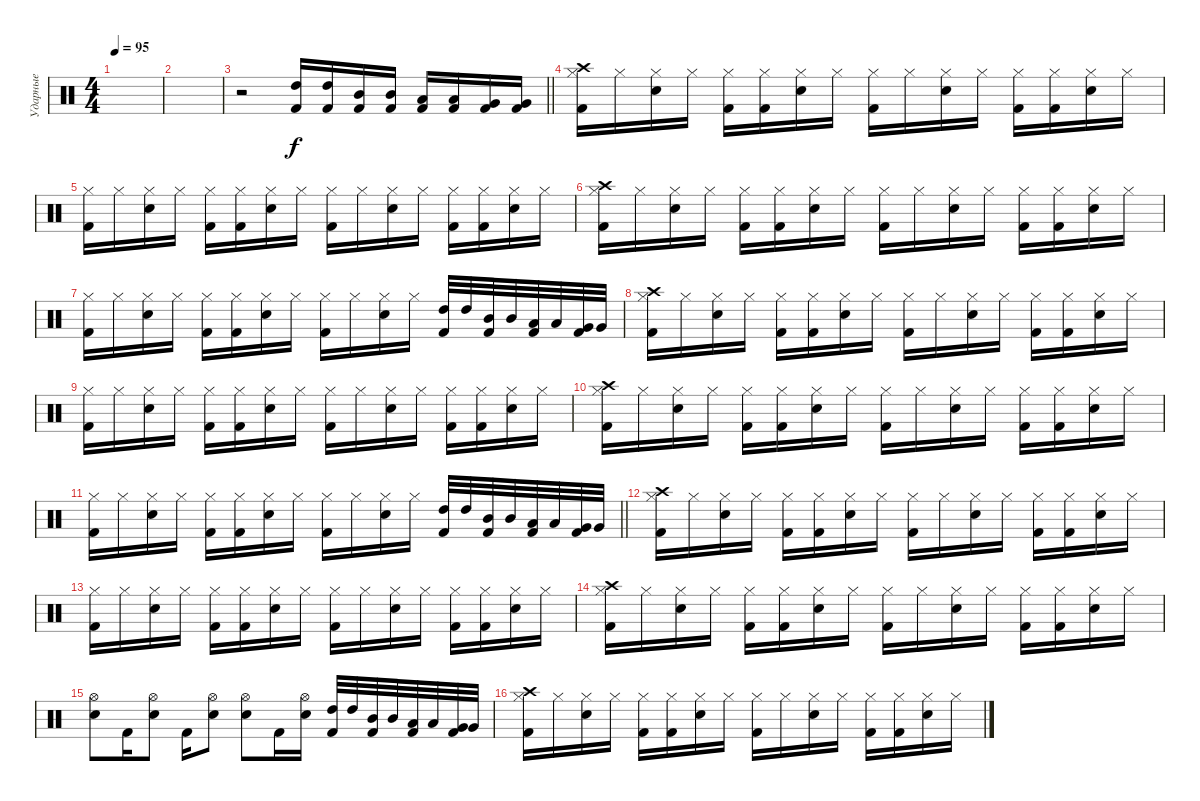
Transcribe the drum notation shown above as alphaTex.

\track ("Ударные" "Ударные") {instrument percussion}
\staff {score}
\articulation defaults
\ts (4 4)
\tempo 95
\clef neutral
\ks c
|
|
\barLineRight lightlight
r.2 ("Kick (hit) 2" "High Tom (hit)").16 ("Kick (hit) 2" "High Tom (hit)").16 ("Kick (hit) 2" "Mid Tom (hit)").16 ("Kick (hit) 2" "Mid Tom (hit)").16 ("Kick (hit) 2" "Low Tom (hit)").16 ("Kick (hit) 2" "Low Tom (hit)").16 ("Kick (hit) 2" "Very Low Tom (hit)").16 ("Kick (hit) 2" "Very Low Tom (hit)").16 |
("Crash high (hit)" "Kick (hit) 2" "Hi-Hat (closed)").16 "Hi-Hat (closed)".16 ("Snare (hit) 2" "Hi-Hat (closed)").16 "Hi-Hat (closed)".16 ("Kick (hit) 2" "Hi-Hat (closed)").16 ("Kick (hit) 2" "Hi-Hat (closed)").16 ("Snare (hit) 2" "Hi-Hat (closed)").16 "Hi-Hat (closed)".16 ("Kick (hit) 2" "Hi-Hat (closed)").16 "Hi-Hat (closed)".16 ("Snare (hit) 2" "Hi-Hat (closed)").16 "Hi-Hat (closed)".16 ("Kick (hit) 2" "Hi-Hat (closed)").16 ("Kick (hit) 2" "Hi-Hat (closed)").16 ("Snare (hit) 2" "Hi-Hat (closed)").16 "Hi-Hat (closed)".16 |
("Kick (hit) 2" "Hi-Hat (closed)").16 "Hi-Hat (closed)".16 ("Snare (hit) 2" "Hi-Hat (closed)").16 "Hi-Hat (closed)".16 ("Kick (hit) 2" "Hi-Hat (closed)").16 ("Kick (hit) 2" "Hi-Hat (closed)").16 ("Snare (hit) 2" "Hi-Hat (closed)").16 "Hi-Hat (closed)".16 ("Kick (hit) 2" "Hi-Hat (closed)").16 "Hi-Hat (closed)".16 ("Snare (hit) 2" "Hi-Hat (closed)").16 "Hi-Hat (closed)".16 ("Kick (hit) 2" "Hi-Hat (closed)").16 ("Kick (hit) 2" "Hi-Hat (closed)").16 ("Snare (hit) 2" "Hi-Hat (closed)").16 "Hi-Hat (closed)".16 |
("Crash high (hit)" "Kick (hit) 2" "Hi-Hat (closed)").16 "Hi-Hat (closed)".16 ("Snare (hit) 2" "Hi-Hat (closed)").16 "Hi-Hat (closed)".16 ("Kick (hit) 2" "Hi-Hat (closed)").16 ("Kick (hit) 2" "Hi-Hat (closed)").16 ("Snare (hit) 2" "Hi-Hat (closed)").16 "Hi-Hat (closed)".16 ("Kick (hit) 2" "Hi-Hat (closed)").16 "Hi-Hat (closed)".16 ("Snare (hit) 2" "Hi-Hat (closed)").16 "Hi-Hat (closed)".16 ("Kick (hit) 2" "Hi-Hat (closed)").16 ("Kick (hit) 2" "Hi-Hat (closed)").16 ("Snare (hit) 2" "Hi-Hat (closed)").16 "Hi-Hat (closed)".16 |
("Kick (hit) 2" "Hi-Hat (closed)").16 "Hi-Hat (closed)".16 ("Snare (hit) 2" "Hi-Hat (closed)").16 "Hi-Hat (closed)".16 ("Kick (hit) 2" "Hi-Hat (closed)").16 ("Kick (hit) 2" "Hi-Hat (closed)").16 ("Snare (hit) 2" "Hi-Hat (closed)").16 "Hi-Hat (closed)".16 ("Kick (hit) 2" "Hi-Hat (closed)").16 "Hi-Hat (closed)".16 ("Snare (hit) 2" "Hi-Hat (closed)").16 "Hi-Hat (closed)".16 ("Kick (hit) 2" "High Tom (hit)").32 "High Tom (hit)".32 ("Kick (hit) 2" "Mid Tom (hit)").32 "Mid Tom (hit)".32 ("Kick (hit) 2" "Low Tom (hit)").32 "Low Tom (hit)".32 ("Kick (hit) 2" "Very Low Tom (hit)").32 "Very Low Tom (hit)".32 |
("Crash high (hit)" "Kick (hit) 2" "Hi-Hat (closed)").16 "Hi-Hat (closed)".16 ("Snare (hit) 2" "Hi-Hat (closed)").16 "Hi-Hat (closed)".16 ("Kick (hit) 2" "Hi-Hat (closed)").16 ("Kick (hit) 2" "Hi-Hat (closed)").16 ("Snare (hit) 2" "Hi-Hat (closed)").16 "Hi-Hat (closed)".16 ("Kick (hit) 2" "Hi-Hat (closed)").16 "Hi-Hat (closed)".16 ("Snare (hit) 2" "Hi-Hat (closed)").16 "Hi-Hat (closed)".16 ("Kick (hit) 2" "Hi-Hat (closed)").16 ("Kick (hit) 2" "Hi-Hat (closed)").16 ("Snare (hit) 2" "Hi-Hat (closed)").16 "Hi-Hat (closed)".16 |
("Kick (hit) 2" "Hi-Hat (closed)").16 "Hi-Hat (closed)".16 ("Snare (hit) 2" "Hi-Hat (closed)").16 "Hi-Hat (closed)".16 ("Kick (hit) 2" "Hi-Hat (closed)").16 ("Kick (hit) 2" "Hi-Hat (closed)").16 ("Snare (hit) 2" "Hi-Hat (closed)").16 "Hi-Hat (closed)".16 ("Kick (hit) 2" "Hi-Hat (closed)").16 "Hi-Hat (closed)".16 ("Snare (hit) 2" "Hi-Hat (closed)").16 "Hi-Hat (closed)".16 ("Kick (hit) 2" "Hi-Hat (closed)").16 ("Kick (hit) 2" "Hi-Hat (closed)").16 ("Snare (hit) 2" "Hi-Hat (closed)").16 "Hi-Hat (closed)".16 |
("Crash high (hit)" "Kick (hit) 2" "Hi-Hat (closed)").16 "Hi-Hat (closed)".16 ("Snare (hit) 2" "Hi-Hat (closed)").16 "Hi-Hat (closed)".16 ("Kick (hit) 2" "Hi-Hat (closed)").16 ("Kick (hit) 2" "Hi-Hat (closed)").16 ("Snare (hit) 2" "Hi-Hat (closed)").16 "Hi-Hat (closed)".16 ("Kick (hit) 2" "Hi-Hat (closed)").16 "Hi-Hat (closed)".16 ("Snare (hit) 2" "Hi-Hat (closed)").16 "Hi-Hat (closed)".16 ("Kick (hit) 2" "Hi-Hat (closed)").16 ("Kick (hit) 2" "Hi-Hat (closed)").16 ("Snare (hit) 2" "Hi-Hat (closed)").16 "Hi-Hat (closed)".16 |
\barLineRight lightlight
("Kick (hit) 2" "Hi-Hat (closed)").16 "Hi-Hat (closed)".16 ("Snare (hit) 2" "Hi-Hat (closed)").16 "Hi-Hat (closed)".16 ("Kick (hit) 2" "Hi-Hat (closed)").16 ("Kick (hit) 2" "Hi-Hat (closed)").16 ("Snare (hit) 2" "Hi-Hat (closed)").16 "Hi-Hat (closed)".16 ("Kick (hit) 2" "Hi-Hat (closed)").16 "Hi-Hat (closed)".16 ("Snare (hit) 2" "Hi-Hat (closed)").16 "Hi-Hat (closed)".16 ("Kick (hit) 2" "High Tom (hit)").32 "High Tom (hit)".32 ("Kick (hit) 2" "Mid Tom (hit)").32 "Mid Tom (hit)".32 ("Kick (hit) 2" "Low Tom (hit)").32 "Low Tom (hit)".32 ("Kick (hit) 2" "Very Low Tom (hit)").32 "Very Low Tom (hit)".32 |
("Crash high (hit)" "Kick (hit) 2" "Hi-Hat (closed)").16 "Hi-Hat (closed)".16 ("Snare (hit) 2" "Hi-Hat (closed)").16 "Hi-Hat (closed)".16 ("Kick (hit) 2" "Hi-Hat (closed)").16 ("Kick (hit) 2" "Hi-Hat (closed)").16 ("Snare (hit) 2" "Hi-Hat (closed)").16 "Hi-Hat (closed)".16 ("Kick (hit) 2" "Hi-Hat (closed)").16 "Hi-Hat (closed)".16 ("Snare (hit) 2" "Hi-Hat (closed)").16 "Hi-Hat (closed)".16 ("Kick (hit) 2" "Hi-Hat (closed)").16 ("Kick (hit) 2" "Hi-Hat (closed)").16 ("Snare (hit) 2" "Hi-Hat (closed)").16 "Hi-Hat (closed)".16 |
("Kick (hit) 2" "Hi-Hat (closed)").16 "Hi-Hat (closed)".16 ("Snare (hit) 2" "Hi-Hat (closed)").16 "Hi-Hat (closed)".16 ("Kick (hit) 2" "Hi-Hat (closed)").16 ("Kick (hit) 2" "Hi-Hat (closed)").16 ("Snare (hit) 2" "Hi-Hat (closed)").16 "Hi-Hat (closed)".16 ("Kick (hit) 2" "Hi-Hat (closed)").16 "Hi-Hat (closed)".16 ("Snare (hit) 2" "Hi-Hat (closed)").16 "Hi-Hat (closed)".16 ("Kick (hit) 2" "Hi-Hat (closed)").16 ("Kick (hit) 2" "Hi-Hat (closed)").16 ("Snare (hit) 2" "Hi-Hat (closed)").16 "Hi-Hat (closed)".16 |
("Crash high (hit)" "Kick (hit) 2" "Hi-Hat (closed)").16 "Hi-Hat (closed)".16 ("Snare (hit) 2" "Hi-Hat (closed)").16 "Hi-Hat (closed)".16 ("Kick (hit) 2" "Hi-Hat (closed)").16 ("Kick (hit) 2" "Hi-Hat (closed)").16 ("Snare (hit) 2" "Hi-Hat (closed)").16 "Hi-Hat (closed)".16 ("Kick (hit) 2" "Hi-Hat (closed)").16 "Hi-Hat (closed)".16 ("Snare (hit) 2" "Hi-Hat (closed)").16 "Hi-Hat (closed)".16 ("Kick (hit) 2" "Hi-Hat (closed)").16 ("Kick (hit) 2" "Hi-Hat (closed)").16 ("Snare (hit) 2" "Hi-Hat (closed)").16 "Hi-Hat (closed)".16 |
("Hi-Hat (open)" "Snare (hit) 2").8 "Kick (hit) 2".16 ("Hi-Hat (open)" "Snare (hit) 2").8 "Kick (hit) 2".16 ("Hi-Hat (open)" "Snare (hit) 2").8 ("Hi-Hat (open)" "Snare (hit) 2").8 "Kick (hit) 2".16 ("Hi-Hat (open)" "Snare (hit) 2").16 ("Kick (hit) 2" "High Tom (hit)").32 "High Tom (hit)".32 ("Kick (hit) 2" "Mid Tom (hit)").32 "Mid Tom (hit)".32 ("Kick (hit) 2" "Low Tom (hit)").32 "Low Tom (hit)".32 ("Kick (hit) 2" "Very Low Tom (hit)").32 "Very Low Tom (hit)".32 |
("Crash high (hit)" "Kick (hit) 2" "Hi-Hat (closed)").16 "Hi-Hat (closed)".16 ("Snare (hit) 2" "Hi-Hat (closed)").16 "Hi-Hat (closed)".16 ("Kick (hit) 2" "Hi-Hat (closed)").16 ("Kick (hit) 2" "Hi-Hat (closed)").16 ("Snare (hit) 2" "Hi-Hat (closed)").16 "Hi-Hat (closed)".16 ("Kick (hit) 2" "Hi-Hat (closed)").16 "Hi-Hat (closed)".16 ("Snare (hit) 2" "Hi-Hat (closed)").16 "Hi-Hat (closed)".16 ("Kick (hit) 2" "Hi-Hat (closed)").16 ("Kick (hit) 2" "Hi-Hat (closed)").16 ("Snare (hit) 2" "Hi-Hat (closed)").16 "Hi-Hat (closed)".16
